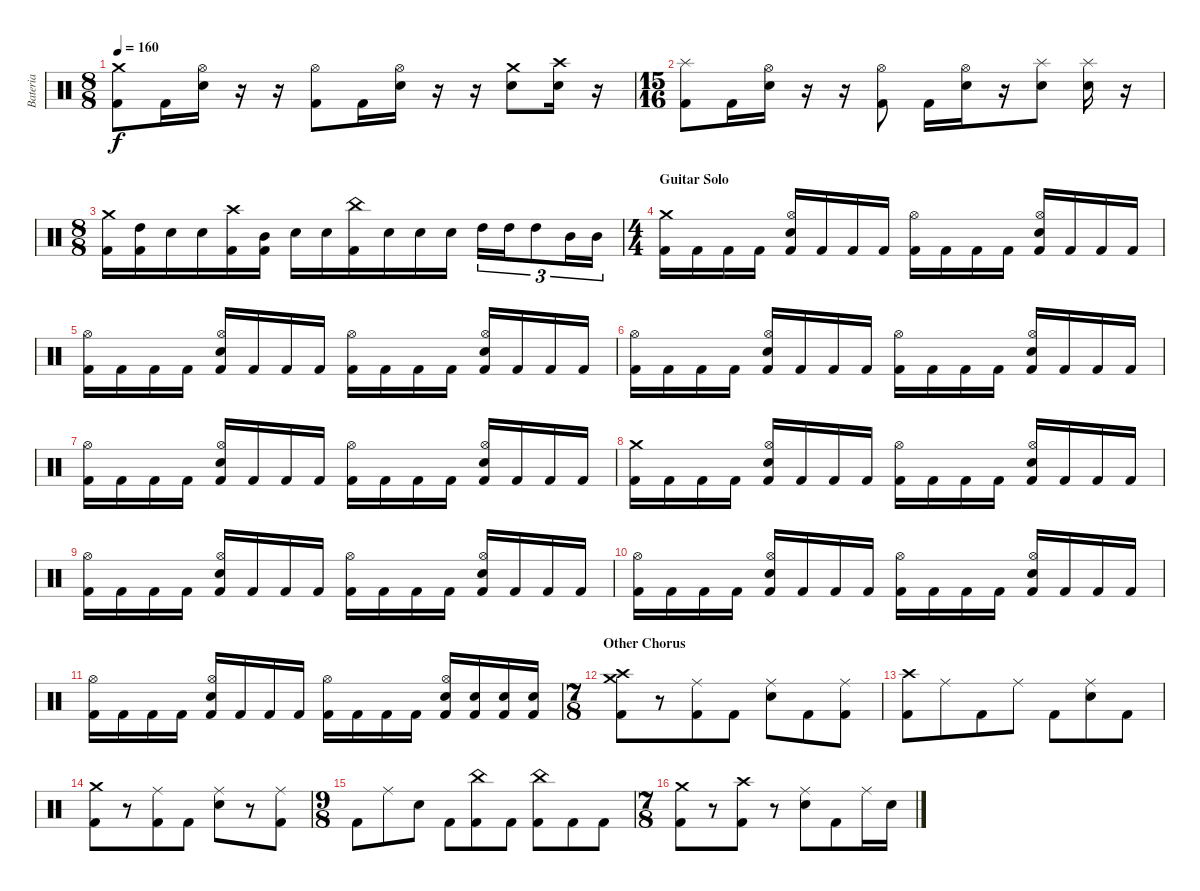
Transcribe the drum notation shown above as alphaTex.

\track ("Bateria" "Bateria") {instrument percussion}
\staff {score}
\articulation defaults
\ts (8 8)
\tempo 160
\clef neutral
\ks c
("Crash medium (hit)" "Kick (hit) 2").8{dy f} "Kick (hit) 2".16 ("Hi-Hat (open)" "Electric Snare (hit)").16 r.16 r.16 ("Hi-Hat (open)" "Kick (hit) 2").8 "Kick (hit) 2".16 ("Hi-Hat (open)" "Electric Snare (hit)").16 r.16 r.16 ("Crash medium (hit)" "Electric Snare (hit)").8 ("Crash high (hit)" "Electric Snare (hit)").16 r.16 |
\ts (15 16)
("Splash (hit)" "Kick (hit) 2").8 "Kick (hit) 2".16 ("Hi-Hat (open)" "Electric Snare (hit)").16 r.16 r.16 ("Hi-Hat (open)" "Kick (hit) 2").8 "Kick (hit) 2".16 ("Hi-Hat (open)" "Electric Snare (hit)").16 r.16 ("Splash (hit)" "Electric Snare (hit)").8 ("Splash (hit)" "Electric Snare (hit)").16 r.16 |
\ts (8 8)
("Crash medium (hit)" "Kick (hit) 2").16 ("High Tom (hit)" "Kick (hit) 2").16 "Electric Snare (hit)".16 "Electric Snare (hit)".16 ("Crash high (hit)" "Kick (hit) 2").16 ("Mid Tom (hit)" "Kick (hit) 2").16 "Electric Snare (hit)".16 "Electric Snare (hit)".16 ("China (hit)" "Kick (hit) 2").16 "Electric Snare (hit)".16 "Electric Snare (hit)".16 "Electric Snare (hit)".16 "High Tom (hit)".16{tu (3 2)} "High Tom (hit)".16{tu (3 2)} "High Tom (hit)".8{tu (3 2)} "Mid Tom (hit)".16{tu (3 2)} "Mid Tom (hit)".16{tu (3 2)} |
\ts (4 4)
\section ("" "Guitar Solo")
("Crash medium (hit)" "Kick (hit) 2").16 "Kick (hit) 2".16 "Kick (hit) 2".16 "Kick (hit) 2".16 ("Hi-Hat (open)" "Electric Snare (hit)" "Kick (hit) 2").16 "Kick (hit) 2".16 "Kick (hit) 2".16 "Kick (hit) 2".16 ("Hi-Hat (open)" "Kick (hit) 2").16 "Kick (hit) 2".16 "Kick (hit) 2".16 "Kick (hit) 2".16 ("Hi-Hat (open)" "Electric Snare (hit)" "Kick (hit) 2").16 "Kick (hit) 2".16 "Kick (hit) 2".16 "Kick (hit) 2".16 |
("Hi-Hat (open)" "Kick (hit) 2").16 "Kick (hit) 2".16 "Kick (hit) 2".16 "Kick (hit) 2".16 ("Hi-Hat (open)" "Electric Snare (hit)" "Kick (hit) 2").16 "Kick (hit) 2".16 "Kick (hit) 2".16 "Kick (hit) 2".16 ("Hi-Hat (open)" "Kick (hit) 2").16 "Kick (hit) 2".16 "Kick (hit) 2".16 "Kick (hit) 2".16 ("Hi-Hat (open)" "Electric Snare (hit)" "Kick (hit) 2").16 "Kick (hit) 2".16 "Kick (hit) 2".16 "Kick (hit) 2".16 |
("Hi-Hat (open)" "Kick (hit) 2").16 "Kick (hit) 2".16 "Kick (hit) 2".16 "Kick (hit) 2".16 ("Hi-Hat (open)" "Electric Snare (hit)" "Kick (hit) 2").16 "Kick (hit) 2".16 "Kick (hit) 2".16 "Kick (hit) 2".16 ("Hi-Hat (open)" "Kick (hit) 2").16 "Kick (hit) 2".16 "Kick (hit) 2".16 "Kick (hit) 2".16 ("Hi-Hat (open)" "Electric Snare (hit)" "Kick (hit) 2").16 "Kick (hit) 2".16 "Kick (hit) 2".16 "Kick (hit) 2".16 |
("Hi-Hat (open)" "Kick (hit) 2").16 "Kick (hit) 2".16 "Kick (hit) 2".16 "Kick (hit) 2".16 ("Hi-Hat (open)" "Electric Snare (hit)" "Kick (hit) 2").16 "Kick (hit) 2".16 "Kick (hit) 2".16 "Kick (hit) 2".16 ("Hi-Hat (open)" "Kick (hit) 2").16 "Kick (hit) 2".16 "Kick (hit) 2".16 "Kick (hit) 2".16 ("Hi-Hat (open)" "Electric Snare (hit)" "Kick (hit) 2").16 "Kick (hit) 2".16 "Kick (hit) 2".16 "Kick (hit) 2".16 |
("Crash medium (hit)" "Kick (hit) 2").16 "Kick (hit) 2".16 "Kick (hit) 2".16 "Kick (hit) 2".16 ("Hi-Hat (open)" "Electric Snare (hit)" "Kick (hit) 2").16 "Kick (hit) 2".16 "Kick (hit) 2".16 "Kick (hit) 2".16 ("Hi-Hat (open)" "Kick (hit) 2").16 "Kick (hit) 2".16 "Kick (hit) 2".16 "Kick (hit) 2".16 ("Hi-Hat (open)" "Electric Snare (hit)" "Kick (hit) 2").16 "Kick (hit) 2".16 "Kick (hit) 2".16 "Kick (hit) 2".16 |
("Hi-Hat (open)" "Kick (hit) 2").16 "Kick (hit) 2".16 "Kick (hit) 2".16 "Kick (hit) 2".16 ("Hi-Hat (open)" "Electric Snare (hit)" "Kick (hit) 2").16 "Kick (hit) 2".16 "Kick (hit) 2".16 "Kick (hit) 2".16 ("Hi-Hat (open)" "Kick (hit) 2").16 "Kick (hit) 2".16 "Kick (hit) 2".16 "Kick (hit) 2".16 ("Hi-Hat (open)" "Electric Snare (hit)" "Kick (hit) 2").16 "Kick (hit) 2".16 "Kick (hit) 2".16 "Kick (hit) 2".16 |
("Hi-Hat (open)" "Kick (hit) 2").16 "Kick (hit) 2".16 "Kick (hit) 2".16 "Kick (hit) 2".16 ("Hi-Hat (open)" "Electric Snare (hit)" "Kick (hit) 2").16 "Kick (hit) 2".16 "Kick (hit) 2".16 "Kick (hit) 2".16 ("Hi-Hat (open)" "Kick (hit) 2").16 "Kick (hit) 2".16 "Kick (hit) 2".16 "Kick (hit) 2".16 ("Hi-Hat (open)" "Electric Snare (hit)" "Kick (hit) 2").16 "Kick (hit) 2".16 "Kick (hit) 2".16 "Kick (hit) 2".16 |
("Hi-Hat (open)" "Kick (hit) 2").16 "Kick (hit) 2".16 "Kick (hit) 2".16 "Kick (hit) 2".16 ("Hi-Hat (open)" "Electric Snare (hit)" "Kick (hit) 2").16 "Kick (hit) 2".16 "Kick (hit) 2".16 "Kick (hit) 2".16 ("Hi-Hat (open)" "Kick (hit) 2").16 "Kick (hit) 2".16 "Kick (hit) 2".16 "Kick (hit) 2".16 ("Hi-Hat (open)" "Electric Snare (hit)" "Kick (hit) 2").16 ("Electric Snare (hit)" "Kick (hit) 2").16 ("Electric Snare (hit)" "Kick (hit) 2").16 ("Electric Snare (hit)" "Kick (hit) 2").16 |
\ts (7 8)
\section ("" "Other Chorus")
("Crash medium (hit)" "Crash high (hit)" "Kick (hit) 2").8 r.8 ("Ride (middle)" "Kick (hit) 2").8 "Kick (hit) 2".8 ("Ride (middle)" "Electric Snare (hit)").8 "Kick (hit) 2".8 ("Ride (middle)" "Kick (hit) 2").8 |
("Crash high (hit)" "Kick (hit) 2").8 "Ride (middle)".8 "Kick (hit) 2".8 "Ride (middle)".8 "Kick (hit) 2".8 ("Ride (middle)" "Electric Snare (hit)").8 "Kick (hit) 2".8 |
("Crash medium (hit)" "Kick (hit) 2").8 r.8 ("Ride (middle)" "Kick (hit) 2").8 "Kick (hit) 2".8 ("Ride (middle)" "Electric Snare (hit)").8 r.8 ("Ride (middle)" "Kick (hit) 2").8 |
\ts (9 8)
"Kick (hit) 2".8 "Ride (middle)".8 "Electric Snare (hit)".8 "Kick (hit) 2".8 ("China (hit)" "Kick (hit) 2").8 "Kick (hit) 2".8 ("China (hit)" "Kick (hit) 2").8 "Kick (hit) 2".8 "Kick (hit) 2".8 |
\ts (7 8)
("Crash medium (hit)" "Kick (hit) 2").8 r.8 ("Crash high (hit)" "Kick (hit) 2").8 r.8 ("Ride (middle)" "Electric Snare (hit)").8 "Kick (hit) 2".8 "Ride (middle)".16 "Electric Snare (hit)".16
